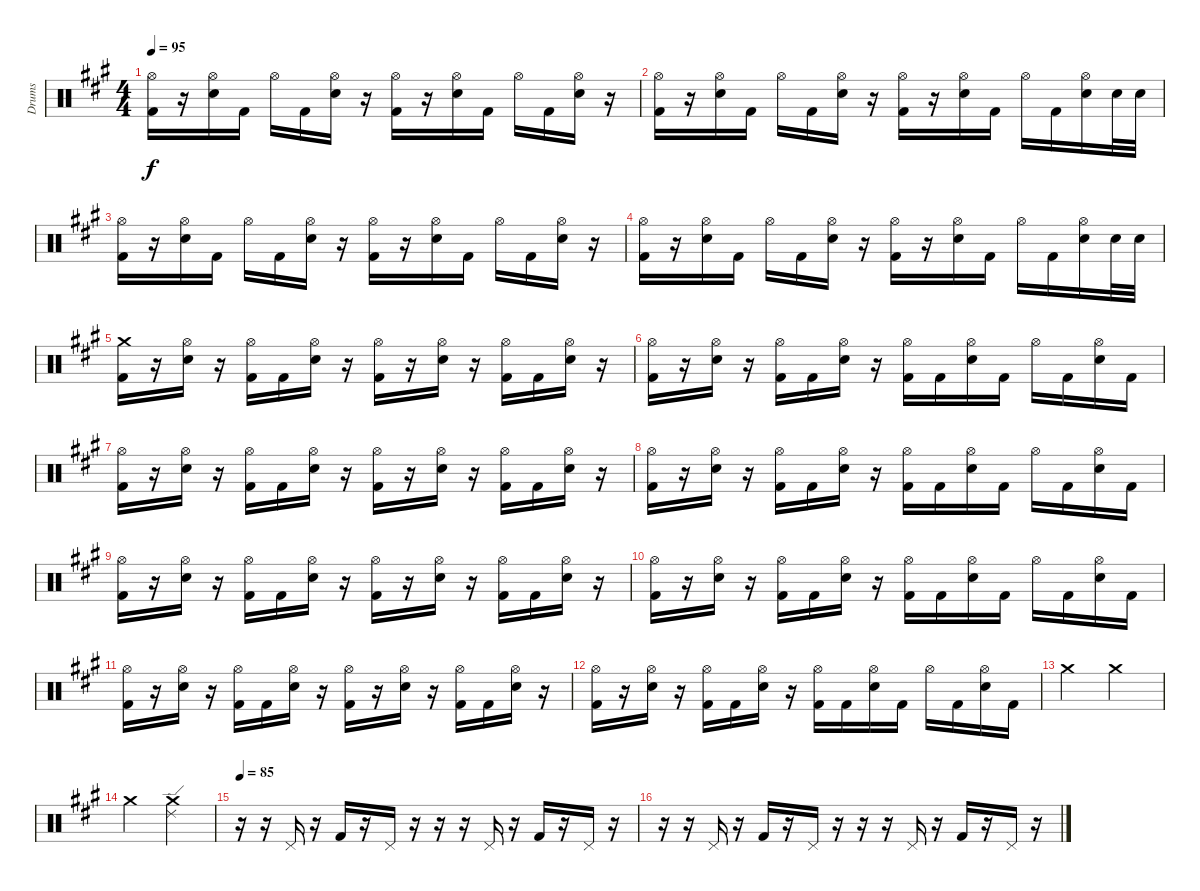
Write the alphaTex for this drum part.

\track ("Drums" "Drums") {instrument percussion}
\staff {score}
\articulation defaults
\ts (4 4)
\tempo 95
\clef neutral
\ks a
("Hi-Hat (open)" "Kick (hit) 2").16{dy f} r.16 ("Hi-Hat (open)" "Electric Snare (hit)").16 "Kick (hit) 2".16 "Hi-Hat (open)".16 "Kick (hit) 2".16 ("Hi-Hat (open)" "Electric Snare (hit)").16 r.16 ("Hi-Hat (open)" "Kick (hit) 2").16 r.16 ("Hi-Hat (open)" "Electric Snare (hit)").16 "Kick (hit) 2".16 "Hi-Hat (open)".16 "Kick (hit) 2".16 ("Hi-Hat (open)" "Electric Snare (hit)").16 r.16 |
("Hi-Hat (open)" "Kick (hit) 2").16 r.16 ("Hi-Hat (open)" "Electric Snare (hit)").16 "Kick (hit) 2".16 "Hi-Hat (open)".16 "Kick (hit) 2".16 ("Hi-Hat (open)" "Electric Snare (hit)").16 r.16 ("Hi-Hat (open)" "Kick (hit) 2").16 r.16 ("Hi-Hat (open)" "Electric Snare (hit)").16 "Kick (hit) 2".16 "Hi-Hat (open)".16 "Kick (hit) 2".16 ("Hi-Hat (open)" "Electric Snare (hit)").16 "Electric Snare (hit)".32 "Electric Snare (hit)".32 |
("Hi-Hat (open)" "Kick (hit) 2").16 r.16 ("Hi-Hat (open)" "Electric Snare (hit)").16 "Kick (hit) 2".16 "Hi-Hat (open)".16 "Kick (hit) 2".16 ("Hi-Hat (open)" "Electric Snare (hit)").16 r.16 ("Hi-Hat (open)" "Kick (hit) 2").16 r.16 ("Hi-Hat (open)" "Electric Snare (hit)").16 "Kick (hit) 2".16 "Hi-Hat (open)".16 "Kick (hit) 2".16 ("Hi-Hat (open)" "Electric Snare (hit)").16 r.16 |
("Hi-Hat (open)" "Kick (hit) 2").16 r.16 ("Hi-Hat (open)" "Electric Snare (hit)").16 "Kick (hit) 2".16 "Hi-Hat (open)".16 "Kick (hit) 2".16 ("Hi-Hat (open)" "Electric Snare (hit)").16 r.16 ("Hi-Hat (open)" "Kick (hit) 2").16 r.16 ("Hi-Hat (open)" "Electric Snare (hit)").16 "Kick (hit) 2".16 "Hi-Hat (open)".16 "Kick (hit) 2".16 ("Hi-Hat (open)" "Electric Snare (hit)").16 "Electric Snare (hit)".32 "Electric Snare (hit)".32 |
("Crash medium (hit)" "Kick (hit) 2").16 r.16 ("Hi-Hat (open)" "Electric Snare (hit)").16 r.16 ("Hi-Hat (open)" "Kick (hit) 2").16 "Kick (hit) 2".16 ("Hi-Hat (open)" "Electric Snare (hit)").16 r.16 ("Hi-Hat (open)" "Kick (hit) 2").16 r.16 ("Hi-Hat (open)" "Electric Snare (hit)").16 r.16 ("Hi-Hat (open)" "Kick (hit) 2").16 "Kick (hit) 2".16 ("Hi-Hat (open)" "Electric Snare (hit)").16 r.16 |
("Hi-Hat (open)" "Kick (hit) 2").16 r.16 ("Hi-Hat (open)" "Electric Snare (hit)").16 r.16 ("Hi-Hat (open)" "Kick (hit) 2").16 "Kick (hit) 2".16 ("Hi-Hat (open)" "Electric Snare (hit)").16 r.16 ("Hi-Hat (open)" "Kick (hit) 2").16 "Kick (hit) 2".16 ("Hi-Hat (open)" "Electric Snare (hit)").16 "Kick (hit) 2".16 "Hi-Hat (open)".16 "Kick (hit) 2".16 ("Hi-Hat (open)" "Electric Snare (hit)").16 "Kick (hit) 2".16 |
("Hi-Hat (open)" "Kick (hit) 2").16 r.16 ("Hi-Hat (open)" "Electric Snare (hit)").16 r.16 ("Hi-Hat (open)" "Kick (hit) 2").16 "Kick (hit) 2".16 ("Hi-Hat (open)" "Electric Snare (hit)").16 r.16 ("Hi-Hat (open)" "Kick (hit) 2").16 r.16 ("Hi-Hat (open)" "Electric Snare (hit)").16 r.16 ("Hi-Hat (open)" "Kick (hit) 2").16 "Kick (hit) 2".16 ("Hi-Hat (open)" "Electric Snare (hit)").16 r.16 |
("Hi-Hat (open)" "Kick (hit) 2").16 r.16 ("Hi-Hat (open)" "Electric Snare (hit)").16 r.16 ("Hi-Hat (open)" "Kick (hit) 2").16 "Kick (hit) 2".16 ("Hi-Hat (open)" "Electric Snare (hit)").16 r.16 ("Hi-Hat (open)" "Kick (hit) 2").16 "Kick (hit) 2".16 ("Hi-Hat (open)" "Electric Snare (hit)").16 "Kick (hit) 2".16 "Hi-Hat (open)".16 "Kick (hit) 2".16 ("Hi-Hat (open)" "Electric Snare (hit)").16 "Kick (hit) 2".16 |
("Hi-Hat (open)" "Kick (hit) 2").16 r.16 ("Hi-Hat (open)" "Electric Snare (hit)").16 r.16 ("Hi-Hat (open)" "Kick (hit) 2").16 "Kick (hit) 2".16 ("Hi-Hat (open)" "Electric Snare (hit)").16 r.16 ("Hi-Hat (open)" "Kick (hit) 2").16 r.16 ("Hi-Hat (open)" "Electric Snare (hit)").16 r.16 ("Hi-Hat (open)" "Kick (hit) 2").16 "Kick (hit) 2".16 ("Hi-Hat (open)" "Electric Snare (hit)").16 r.16 |
("Hi-Hat (open)" "Kick (hit) 2").16 r.16 ("Hi-Hat (open)" "Electric Snare (hit)").16 r.16 ("Hi-Hat (open)" "Kick (hit) 2").16 "Kick (hit) 2".16 ("Hi-Hat (open)" "Electric Snare (hit)").16 r.16 ("Hi-Hat (open)" "Kick (hit) 2").16 "Kick (hit) 2".16 ("Hi-Hat (open)" "Electric Snare (hit)").16 "Kick (hit) 2".16 "Hi-Hat (open)".16 "Kick (hit) 2".16 ("Hi-Hat (open)" "Electric Snare (hit)").16 "Kick (hit) 2".16 |
("Hi-Hat (open)" "Kick (hit) 2").16 r.16 ("Hi-Hat (open)" "Electric Snare (hit)").16 r.16 ("Hi-Hat (open)" "Kick (hit) 2").16 "Kick (hit) 2".16 ("Hi-Hat (open)" "Electric Snare (hit)").16 r.16 ("Hi-Hat (open)" "Kick (hit) 2").16 r.16 ("Hi-Hat (open)" "Electric Snare (hit)").16 r.16 ("Hi-Hat (open)" "Kick (hit) 2").16 "Kick (hit) 2".16 ("Hi-Hat (open)" "Electric Snare (hit)").16 r.16 |
("Hi-Hat (open)" "Kick (hit) 2").16 r.16 ("Hi-Hat (open)" "Electric Snare (hit)").16 r.16 ("Hi-Hat (open)" "Kick (hit) 2").16 "Kick (hit) 2".16 ("Hi-Hat (open)" "Electric Snare (hit)").16 r.16 ("Hi-Hat (open)" "Kick (hit) 2").16 "Kick (hit) 2".16 ("Hi-Hat (open)" "Electric Snare (hit)").16 "Kick (hit) 2".16 "Hi-Hat (open)".16 "Kick (hit) 2".16 ("Hi-Hat (open)" "Electric Snare (hit)").16 "Kick (hit) 2".16 |
"Crash medium (hit)".2 "Crash medium (hit)".2 |
"Crash medium (hit)".2 ("Ride (edge) 2" "Crash medium (hit)").2 |
\tempo 85
r.16 r.16 "Pedal Hi-Hat (hit)".16 r.16 "Kick (hit) 2".16 r.16 "Pedal Hi-Hat (hit)".16 r.16 r.16 r.16 "Pedal Hi-Hat (hit)".16 r.16 "Kick (hit) 2".16 r.16 "Pedal Hi-Hat (hit)".16 r.16 |
r.16 r.16 "Pedal Hi-Hat (hit)".16 r.16 "Kick (hit) 2".16 r.16 "Pedal Hi-Hat (hit)".16 r.16 r.16 r.16 "Pedal Hi-Hat (hit)".16 r.16 "Kick (hit) 2".16 r.16 "Pedal Hi-Hat (hit)".16 r.16
